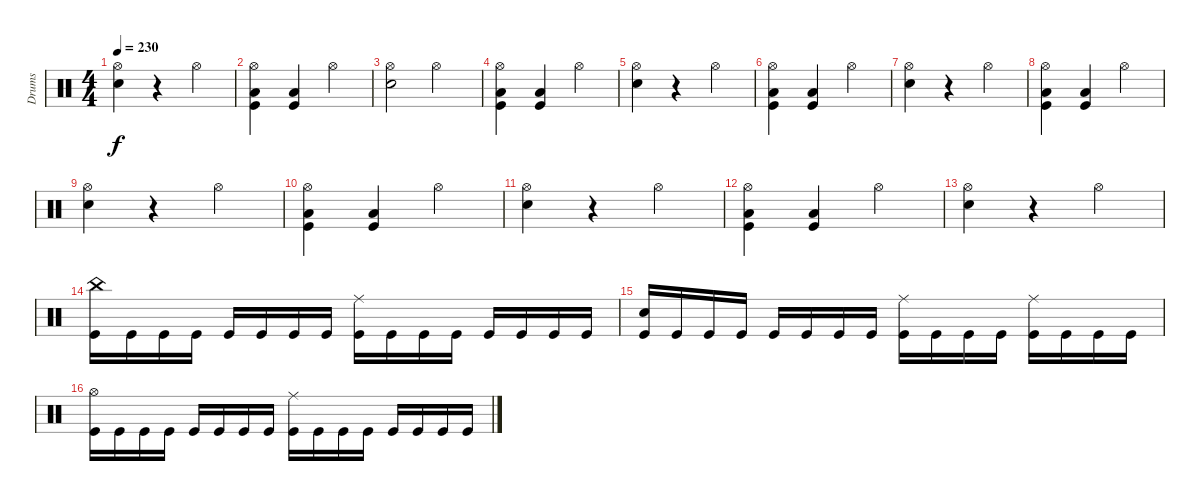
\track ("Drums" "Drums") {instrument percussion}
\staff {score}
\articulation defaults
\ts (4 4)
\tempo 230
\clef neutral
\ks c
("Hi-Hat (open)" "Electric Snare (hit)").4{dy f} r.4 "Hi-Hat (open)".4 |
("Hi-Hat (open)" "Low Floor Tom (hit)" "Kick (hit)").4 ("Low Floor Tom (hit)" "Kick (hit)").4 "Hi-Hat (open)".4 |
("Hi-Hat (open)" "Electric Snare (hit)").2 "Hi-Hat (open)".2 |
("Hi-Hat (open)" "Low Floor Tom (hit)" "Kick (hit)").4 ("Low Floor Tom (hit)" "Kick (hit)").4 "Hi-Hat (open)".4 |
("Hi-Hat (open)" "Electric Snare (hit)").4 r.4 "Hi-Hat (open)".4 |
("Hi-Hat (open)" "Low Floor Tom (hit)" "Kick (hit)").4 ("Low Floor Tom (hit)" "Kick (hit)").4 "Hi-Hat (open)".4 |
("Hi-Hat (open)" "Electric Snare (hit)").4 r.4 "Hi-Hat (open)".4 |
("Hi-Hat (open)" "Low Floor Tom (hit)" "Kick (hit)").4 ("Low Floor Tom (hit)" "Kick (hit)").4 "Hi-Hat (open)".4 |
("Hi-Hat (open)" "Electric Snare (hit)").4 r.4 "Hi-Hat (open)".4 |
("Hi-Hat (open)" "Low Floor Tom (hit)" "Kick (hit)").4 ("Low Floor Tom (hit)" "Kick (hit)").4 "Hi-Hat (open)".4 |
("Hi-Hat (open)" "Electric Snare (hit)").4 r.4 "Hi-Hat (open)".4 |
("Hi-Hat (open)" "Low Floor Tom (hit)" "Kick (hit)").4 ("Low Floor Tom (hit)" "Kick (hit)").4 "Hi-Hat (open)".4 |
("Hi-Hat (open)" "Electric Snare (hit)").4 r.4 "Hi-Hat (open)".4 |
("China (hit)" "Kick (hit)").16 "Kick (hit)".16 "Kick (hit)".16 "Kick (hit)".16 "Kick (hit)".16 "Kick (hit)".16 "Kick (hit)".16 "Kick (hit)".16 ("Ride (middle)" "Kick (hit)").16 "Kick (hit)".16 "Kick (hit)".16 "Kick (hit)".16 "Kick (hit)".16 "Kick (hit)".16 "Kick (hit)".16 "Kick (hit)".16 |
("Electric Snare (hit)" "Kick (hit)").16 "Kick (hit)".16 "Kick (hit)".16 "Kick (hit)".16 "Kick (hit)".16 "Kick (hit)".16 "Kick (hit)".16 "Kick (hit)".16 ("Ride (middle)" "Kick (hit)").16 "Kick (hit)".16 "Kick (hit)".16 "Kick (hit)".16 ("Ride (middle)" "Kick (hit)").16 "Kick (hit)".16 "Kick (hit)".16 "Kick (hit)".16 |
("Hi-Hat (open)" "Kick (hit)").16 "Kick (hit)".16 "Kick (hit)".16 "Kick (hit)".16 "Kick (hit)".16 "Kick (hit)".16 "Kick (hit)".16 "Kick (hit)".16 ("Ride (middle)" "Kick (hit)").16 "Kick (hit)".16 "Kick (hit)".16 "Kick (hit)".16 "Kick (hit)".16 "Kick (hit)".16 "Kick (hit)".16 "Kick (hit)".16
